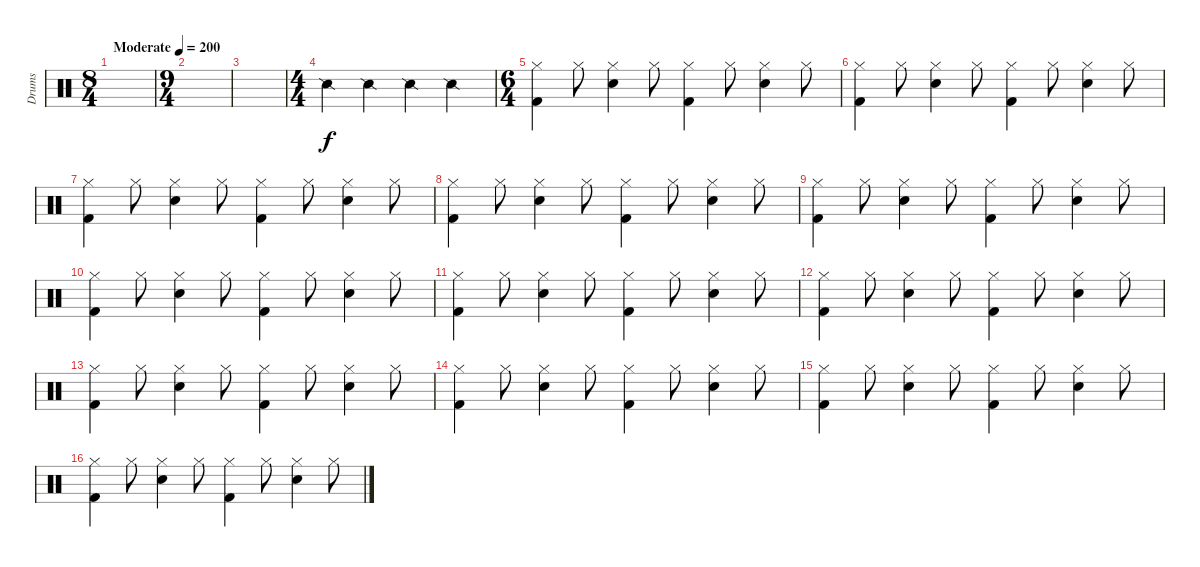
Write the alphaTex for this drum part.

\track ("Drums" "Drums") {instrument percussion}
\staff {score}
\articulation defaults
\ts (8 4)
\tempo (200 "Moderate")
\clef neutral
\ks c
|
\ts (9 4)
|
|
\ts (4 4)
"Snare (side stick) 2".4 "Snare (side stick) 2".4 "Snare (side stick) 2".4 "Snare (side stick) 2".4 |
\ts (6 4)
("Hi-Hat (closed)" "Kick (hit) 2").4 "Hi-Hat (closed)".8 ("Hi-Hat (closed)" "Snare (hit) 2").4 "Hi-Hat (closed)".8 ("Hi-Hat (closed)" "Kick (hit) 2").4 "Hi-Hat (closed)".8 ("Hi-Hat (closed)" "Snare (hit) 2").4 "Hi-Hat (closed)".8 |
("Hi-Hat (closed)" "Kick (hit) 2").4 "Hi-Hat (closed)".8 ("Hi-Hat (closed)" "Snare (hit) 2").4 "Hi-Hat (closed)".8 ("Hi-Hat (closed)" "Kick (hit) 2").4 "Hi-Hat (closed)".8 ("Hi-Hat (closed)" "Snare (hit) 2").4 "Hi-Hat (closed)".8 |
("Hi-Hat (closed)" "Kick (hit) 2").4 "Hi-Hat (closed)".8 ("Hi-Hat (closed)" "Snare (hit) 2").4 "Hi-Hat (closed)".8 ("Hi-Hat (closed)" "Kick (hit) 2").4 "Hi-Hat (closed)".8 ("Hi-Hat (closed)" "Snare (hit) 2").4 "Hi-Hat (closed)".8 |
("Hi-Hat (closed)" "Kick (hit) 2").4 "Hi-Hat (closed)".8 ("Hi-Hat (closed)" "Snare (hit) 2").4 "Hi-Hat (closed)".8 ("Hi-Hat (closed)" "Kick (hit) 2").4 "Hi-Hat (closed)".8 ("Hi-Hat (closed)" "Snare (hit) 2").4 "Hi-Hat (closed)".8 |
("Hi-Hat (closed)" "Kick (hit) 2").4 "Hi-Hat (closed)".8 ("Hi-Hat (closed)" "Snare (hit) 2").4 "Hi-Hat (closed)".8 ("Hi-Hat (closed)" "Kick (hit) 2").4 "Hi-Hat (closed)".8 ("Hi-Hat (closed)" "Snare (hit) 2").4 "Hi-Hat (closed)".8 |
("Hi-Hat (closed)" "Kick (hit) 2").4 "Hi-Hat (closed)".8 ("Hi-Hat (closed)" "Snare (hit) 2").4 "Hi-Hat (closed)".8 ("Hi-Hat (closed)" "Kick (hit) 2").4 "Hi-Hat (closed)".8 ("Hi-Hat (closed)" "Snare (hit) 2").4 "Hi-Hat (closed)".8 |
("Hi-Hat (closed)" "Kick (hit) 2").4 "Hi-Hat (closed)".8 ("Hi-Hat (closed)" "Snare (hit) 2").4 "Hi-Hat (closed)".8 ("Hi-Hat (closed)" "Kick (hit) 2").4 "Hi-Hat (closed)".8 ("Hi-Hat (closed)" "Snare (hit) 2").4 "Hi-Hat (closed)".8 |
("Hi-Hat (closed)" "Kick (hit) 2").4 "Hi-Hat (closed)".8 ("Hi-Hat (closed)" "Snare (hit) 2").4 "Hi-Hat (closed)".8 ("Hi-Hat (closed)" "Kick (hit) 2").4 "Hi-Hat (closed)".8 ("Hi-Hat (closed)" "Snare (hit) 2").4 "Hi-Hat (closed)".8 |
("Hi-Hat (closed)" "Kick (hit) 2").4 "Hi-Hat (closed)".8 ("Hi-Hat (closed)" "Snare (hit) 2").4 "Hi-Hat (closed)".8 ("Hi-Hat (closed)" "Kick (hit) 2").4 "Hi-Hat (closed)".8 ("Hi-Hat (closed)" "Snare (hit) 2").4 "Hi-Hat (closed)".8 |
("Hi-Hat (closed)" "Kick (hit) 2").4 "Hi-Hat (closed)".8 ("Hi-Hat (closed)" "Snare (hit) 2").4 "Hi-Hat (closed)".8 ("Hi-Hat (closed)" "Kick (hit) 2").4 "Hi-Hat (closed)".8 ("Hi-Hat (closed)" "Snare (hit) 2").4 "Hi-Hat (closed)".8 |
("Hi-Hat (closed)" "Kick (hit) 2").4 "Hi-Hat (closed)".8 ("Hi-Hat (closed)" "Snare (hit) 2").4 "Hi-Hat (closed)".8 ("Hi-Hat (closed)" "Kick (hit) 2").4 "Hi-Hat (closed)".8 ("Hi-Hat (closed)" "Snare (hit) 2").4 "Hi-Hat (closed)".8 |
("Hi-Hat (closed)" "Kick (hit) 2").4 "Hi-Hat (closed)".8 ("Hi-Hat (closed)" "Snare (hit) 2").4 "Hi-Hat (closed)".8 ("Hi-Hat (closed)" "Kick (hit) 2").4 "Hi-Hat (closed)".8 ("Hi-Hat (closed)" "Snare (hit) 2").4 "Hi-Hat (closed)".8
